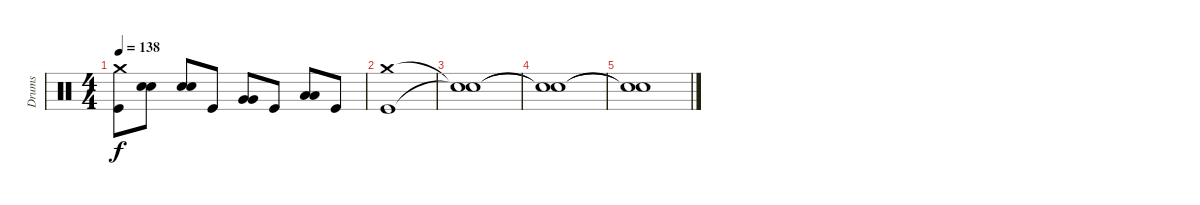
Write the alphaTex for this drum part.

\track ("Drums" "Drums") {instrument percussion}
\staff {score}
\articulation defaults
\ts (4 4)
\tempo 138
\clef neutral
\ks c
("Crash medium (hit)" "Kick (hit)").8{dy f} ("Snare (hit) 2" "Snare (hit) 2").8 ("Snare (hit) 2" "Snare (hit) 2").8 "Kick (hit)".8 ("Very Low Tom (hit)" "Very Low Tom (hit)").8 "Kick (hit)".8 ("Low Floor Tom (hit)" "Low Floor Tom (hit)").8 "Kick (hit)".8 |
("Crash medium (hit)" "Kick (hit)").1 |
("Snare (hit)"{t} "Snare (hit)"{t}).1 |
("Snare (hit)"{t} "Snare (hit)"{t}).1 |
("Snare (hit)"{t} "Snare (hit)"{t}).1
